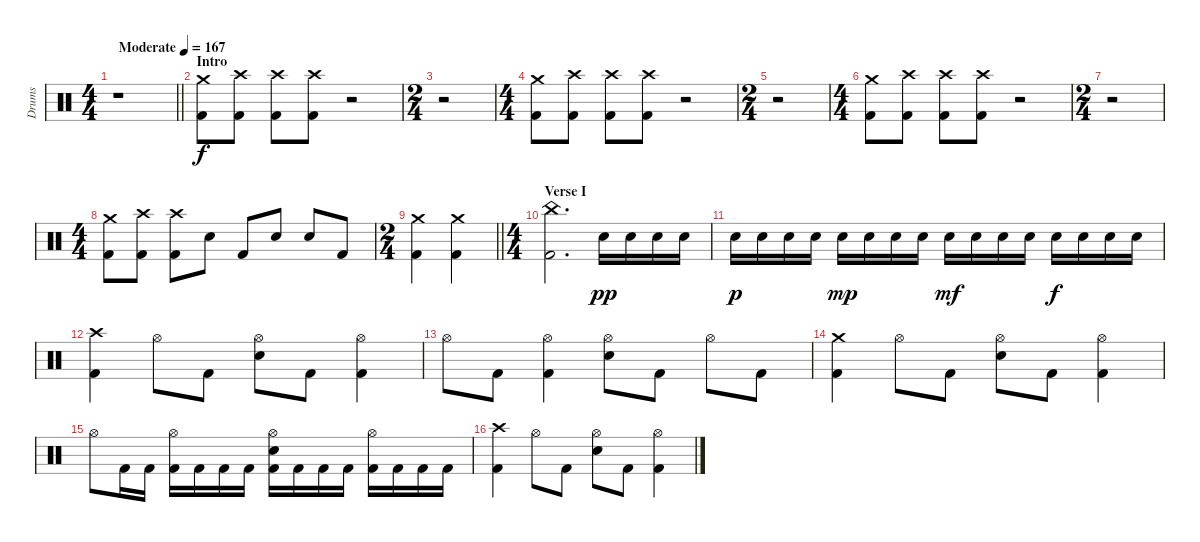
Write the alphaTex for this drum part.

\track ("Drums" "Drums") {instrument percussion}
\staff {score}
\articulation defaults
\ts (4 4)
\tempo (167 "Moderate")
\clef neutral
\barLineRight lightlight
\ks c
r.1{dy f} |
\section ("" "Intro")
("Crash medium (hit)" "Kick (hit) 2").8 ("Crash high (hit)" "Kick (hit) 2").8 ("Crash high (hit)" "Kick (hit) 2").8 ("Crash high (hit)" "Kick (hit) 2").8 r.2 |
\ts (2 4)
r.2 |
\ts (4 4)
("Crash medium (hit)" "Kick (hit) 2").8 ("Crash high (hit)" "Kick (hit) 2").8 ("Crash high (hit)" "Kick (hit) 2").8 ("Crash high (hit)" "Kick (hit) 2").8 r.2 |
\ts (2 4)
r.2 |
\ts (4 4)
("Crash medium (hit)" "Kick (hit) 2").8 ("Crash high (hit)" "Kick (hit) 2").8 ("Crash high (hit)" "Kick (hit) 2").8 ("Crash high (hit)" "Kick (hit) 2").8 r.2 |
\ts (2 4)
r.2 |
\ts (4 4)
("Crash medium (hit)" "Kick (hit) 2").8 ("Crash high (hit)" "Kick (hit) 2").8 ("Crash high (hit)" "Kick (hit) 2").8 "Snare (hit) 2".8 "Kick (hit) 2".8 "Snare (hit) 2".8 "Snare (hit) 2".8 "Kick (hit) 2".8 |
\ts (2 4)
\barLineRight lightlight
("Crash medium (hit)" "Kick (hit) 2").4 ("Crash medium (hit)" "Kick (hit) 2").4 |
\ts (4 4)
\section ("" "Verse I")
("China (hit)" "Kick (hit) 2").2{d} "Snare (hit) 2".16{dy pp} "Snare (hit) 2".16 "Snare (hit) 2".16 "Snare (hit) 2".16 |
"Snare (hit) 2".16{dy p} "Snare (hit) 2".16 "Snare (hit) 2".16 "Snare (hit) 2".16 "Snare (hit) 2".16{dy mp} "Snare (hit) 2".16 "Snare (hit) 2".16 "Snare (hit) 2".16 "Snare (hit) 2".16{dy mf} "Snare (hit) 2".16 "Snare (hit) 2".16 "Snare (hit) 2".16 "Snare (hit) 2".16{dy f} "Snare (hit) 2".16 "Snare (hit) 2".16 "Snare (hit) 2".16 |
("Crash high (hit)" "Kick (hit) 2").4 "Hi-Hat (open)".8 "Kick (hit) 2".8 ("Hi-Hat (open)" "Snare (hit) 2").8 "Kick (hit) 2".8 ("Hi-Hat (open)" "Kick (hit) 2").4 |
"Hi-Hat (open)".8 "Kick (hit) 2".8 ("Hi-Hat (open)" "Kick (hit) 2").4 ("Hi-Hat (open)" "Snare (hit) 2").8 "Kick (hit) 2".8 "Hi-Hat (open)".8 "Kick (hit) 2".8 |
("Crash medium (hit)" "Kick (hit) 2").4 "Hi-Hat (open)".8 "Kick (hit) 2".8 ("Hi-Hat (open)" "Snare (hit) 2").8 "Kick (hit) 2".8 ("Hi-Hat (open)" "Kick (hit) 2").4 |
"Hi-Hat (open)".8 "Kick (hit) 2".16 "Kick (hit) 2".16 ("Hi-Hat (open)" "Kick (hit) 2").16 "Kick (hit) 2".16 "Kick (hit) 2".16 "Kick (hit) 2".16 ("Hi-Hat (open)" "Snare (hit) 2" "Kick (hit) 2").16 "Kick (hit) 2".16 "Kick (hit) 2".16 "Kick (hit) 2".16 ("Hi-Hat (open)" "Kick (hit) 2").16 "Kick (hit) 2".16 "Kick (hit) 2".16 "Kick (hit) 2".16 |
("Crash high (hit)" "Kick (hit) 2").4 "Hi-Hat (open)".8 "Kick (hit) 2".8 ("Hi-Hat (open)" "Snare (hit) 2").8 "Kick (hit) 2".8 ("Hi-Hat (open)" "Kick (hit) 2").4
